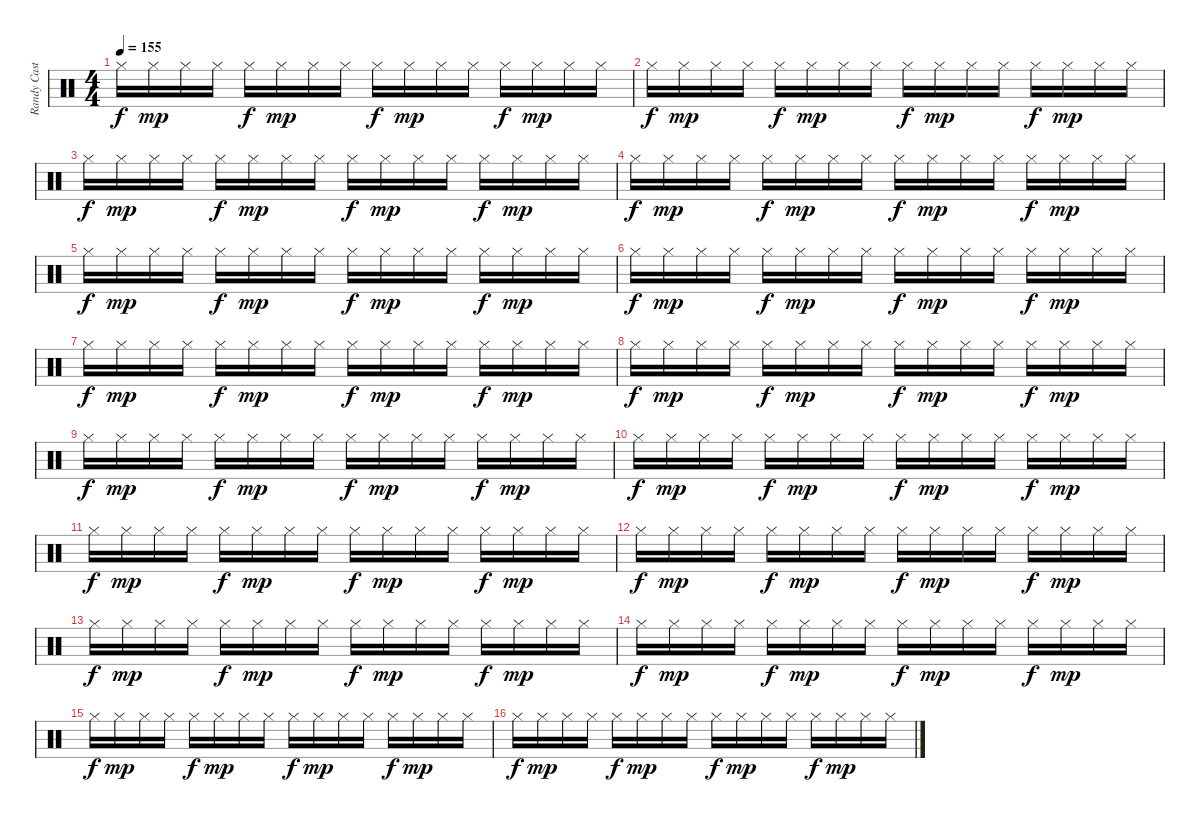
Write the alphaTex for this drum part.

\track ("Randy Castillo - Drums" "Randy Cast") {instrument percussion}
\staff {score}
\articulation defaults
\ts (4 4)
\tempo 155
\clef neutral
\ks c "Hi-Hat (closed)".16{dy f} "Hi-Hat (closed)".16{dy mp} "Hi-Hat (closed)".16 "Hi-Hat (closed)".16 "Hi-Hat (closed)".16{dy f} "Hi-Hat (closed)".16{dy mp} "Hi-Hat (closed)".16 "Hi-Hat (closed)".16 "Hi-Hat (closed)".16{dy f} "Hi-Hat (closed)".16{dy mp} "Hi-Hat (closed)".16 "Hi-Hat (closed)".16 "Hi-Hat (closed)".16{dy f} "Hi-Hat (closed)".16{dy mp} "Hi-Hat (closed)".16 "Hi-Hat (closed)".16
|
"Hi-Hat (closed)".16{dy f} "Hi-Hat (closed)".16{dy mp} "Hi-Hat (closed)".16 "Hi-Hat (closed)".16 "Hi-Hat (closed)".16{dy f} "Hi-Hat (closed)".16{dy mp} "Hi-Hat (closed)".16 "Hi-Hat (closed)".16 "Hi-Hat (closed)".16{dy f} "Hi-Hat (closed)".16{dy mp} "Hi-Hat (closed)".16 "Hi-Hat (closed)".16 "Hi-Hat (closed)".16{dy f} "Hi-Hat (closed)".16{dy mp} "Hi-Hat (closed)".16 "Hi-Hat (closed)".16 |
"Hi-Hat (closed)".16{dy f} "Hi-Hat (closed)".16{dy mp} "Hi-Hat (closed)".16 "Hi-Hat (closed)".16 "Hi-Hat (closed)".16{dy f} "Hi-Hat (closed)".16{dy mp} "Hi-Hat (closed)".16 "Hi-Hat (closed)".16 "Hi-Hat (closed)".16{dy f} "Hi-Hat (closed)".16{dy mp} "Hi-Hat (closed)".16 "Hi-Hat (closed)".16 "Hi-Hat (closed)".16{dy f} "Hi-Hat (closed)".16{dy mp} "Hi-Hat (closed)".16 "Hi-Hat (closed)".16 |
"Hi-Hat (closed)".16{dy f} "Hi-Hat (closed)".16{dy mp} "Hi-Hat (closed)".16 "Hi-Hat (closed)".16 "Hi-Hat (closed)".16{dy f} "Hi-Hat (closed)".16{dy mp} "Hi-Hat (closed)".16 "Hi-Hat (closed)".16 "Hi-Hat (closed)".16{dy f} "Hi-Hat (closed)".16{dy mp} "Hi-Hat (closed)".16 "Hi-Hat (closed)".16 "Hi-Hat (closed)".16{dy f} "Hi-Hat (closed)".16{dy mp} "Hi-Hat (closed)".16 "Hi-Hat (closed)".16 |
"Hi-Hat (closed)".16{dy f} "Hi-Hat (closed)".16{dy mp} "Hi-Hat (closed)".16 "Hi-Hat (closed)".16 "Hi-Hat (closed)".16{dy f} "Hi-Hat (closed)".16{dy mp} "Hi-Hat (closed)".16 "Hi-Hat (closed)".16 "Hi-Hat (closed)".16{dy f} "Hi-Hat (closed)".16{dy mp} "Hi-Hat (closed)".16 "Hi-Hat (closed)".16 "Hi-Hat (closed)".16{dy f} "Hi-Hat (closed)".16{dy mp} "Hi-Hat (closed)".16 "Hi-Hat (closed)".16 |
"Hi-Hat (closed)".16{dy f} "Hi-Hat (closed)".16{dy mp} "Hi-Hat (closed)".16 "Hi-Hat (closed)".16 "Hi-Hat (closed)".16{dy f} "Hi-Hat (closed)".16{dy mp} "Hi-Hat (closed)".16 "Hi-Hat (closed)".16 "Hi-Hat (closed)".16{dy f} "Hi-Hat (closed)".16{dy mp} "Hi-Hat (closed)".16 "Hi-Hat (closed)".16 "Hi-Hat (closed)".16{dy f} "Hi-Hat (closed)".16{dy mp} "Hi-Hat (closed)".16 "Hi-Hat (closed)".16 |
"Hi-Hat (closed)".16{dy f} "Hi-Hat (closed)".16{dy mp} "Hi-Hat (closed)".16 "Hi-Hat (closed)".16 "Hi-Hat (closed)".16{dy f} "Hi-Hat (closed)".16{dy mp} "Hi-Hat (closed)".16 "Hi-Hat (closed)".16 "Hi-Hat (closed)".16{dy f} "Hi-Hat (closed)".16{dy mp} "Hi-Hat (closed)".16 "Hi-Hat (closed)".16 "Hi-Hat (closed)".16{dy f} "Hi-Hat (closed)".16{dy mp} "Hi-Hat (closed)".16 "Hi-Hat (closed)".16 |
"Hi-Hat (closed)".16{dy f} "Hi-Hat (closed)".16{dy mp} "Hi-Hat (closed)".16 "Hi-Hat (closed)".16 "Hi-Hat (closed)".16{dy f} "Hi-Hat (closed)".16{dy mp} "Hi-Hat (closed)".16 "Hi-Hat (closed)".16 "Hi-Hat (closed)".16{dy f} "Hi-Hat (closed)".16{dy mp} "Hi-Hat (closed)".16 "Hi-Hat (closed)".16 "Hi-Hat (closed)".16{dy f} "Hi-Hat (closed)".16{dy mp} "Hi-Hat (closed)".16 "Hi-Hat (closed)".16 |
"Hi-Hat (closed)".16{dy f} "Hi-Hat (closed)".16{dy mp} "Hi-Hat (closed)".16 "Hi-Hat (closed)".16 "Hi-Hat (closed)".16{dy f} "Hi-Hat (closed)".16{dy mp} "Hi-Hat (closed)".16 "Hi-Hat (closed)".16 "Hi-Hat (closed)".16{dy f} "Hi-Hat (closed)".16{dy mp} "Hi-Hat (closed)".16 "Hi-Hat (closed)".16 "Hi-Hat (closed)".16{dy f} "Hi-Hat (closed)".16{dy mp} "Hi-Hat (closed)".16 "Hi-Hat (closed)".16 |
"Hi-Hat (closed)".16{dy f} "Hi-Hat (closed)".16{dy mp} "Hi-Hat (closed)".16 "Hi-Hat (closed)".16 "Hi-Hat (closed)".16{dy f} "Hi-Hat (closed)".16{dy mp} "Hi-Hat (closed)".16 "Hi-Hat (closed)".16 "Hi-Hat (closed)".16{dy f} "Hi-Hat (closed)".16{dy mp} "Hi-Hat (closed)".16 "Hi-Hat (closed)".16 "Hi-Hat (closed)".16{dy f} "Hi-Hat (closed)".16{dy mp} "Hi-Hat (closed)".16 "Hi-Hat (closed)".16 |
"Hi-Hat (closed)".16{dy f} "Hi-Hat (closed)".16{dy mp} "Hi-Hat (closed)".16 "Hi-Hat (closed)".16 "Hi-Hat (closed)".16{dy f} "Hi-Hat (closed)".16{dy mp} "Hi-Hat (closed)".16 "Hi-Hat (closed)".16 "Hi-Hat (closed)".16{dy f} "Hi-Hat (closed)".16{dy mp} "Hi-Hat (closed)".16 "Hi-Hat (closed)".16 "Hi-Hat (closed)".16{dy f} "Hi-Hat (closed)".16{dy mp} "Hi-Hat (closed)".16 "Hi-Hat (closed)".16 |
"Hi-Hat (closed)".16{dy f} "Hi-Hat (closed)".16{dy mp} "Hi-Hat (closed)".16 "Hi-Hat (closed)".16 "Hi-Hat (closed)".16{dy f} "Hi-Hat (closed)".16{dy mp} "Hi-Hat (closed)".16 "Hi-Hat (closed)".16 "Hi-Hat (closed)".16{dy f} "Hi-Hat (closed)".16{dy mp} "Hi-Hat (closed)".16 "Hi-Hat (closed)".16 "Hi-Hat (closed)".16{dy f} "Hi-Hat (closed)".16{dy mp} "Hi-Hat (closed)".16 "Hi-Hat (closed)".16 |
"Hi-Hat (closed)".16{dy f} "Hi-Hat (closed)".16{dy mp} "Hi-Hat (closed)".16 "Hi-Hat (closed)".16 "Hi-Hat (closed)".16{dy f} "Hi-Hat (closed)".16{dy mp} "Hi-Hat (closed)".16 "Hi-Hat (closed)".16 "Hi-Hat (closed)".16{dy f} "Hi-Hat (closed)".16{dy mp} "Hi-Hat (closed)".16 "Hi-Hat (closed)".16 "Hi-Hat (closed)".16{dy f} "Hi-Hat (closed)".16{dy mp} "Hi-Hat (closed)".16 "Hi-Hat (closed)".16 |
"Hi-Hat (closed)".16{dy f} "Hi-Hat (closed)".16{dy mp} "Hi-Hat (closed)".16 "Hi-Hat (closed)".16 "Hi-Hat (closed)".16{dy f} "Hi-Hat (closed)".16{dy mp} "Hi-Hat (closed)".16 "Hi-Hat (closed)".16 "Hi-Hat (closed)".16{dy f} "Hi-Hat (closed)".16{dy mp} "Hi-Hat (closed)".16 "Hi-Hat (closed)".16 "Hi-Hat (closed)".16{dy f} "Hi-Hat (closed)".16{dy mp} "Hi-Hat (closed)".16 "Hi-Hat (closed)".16 |
"Hi-Hat (closed)".16{dy f} "Hi-Hat (closed)".16{dy mp} "Hi-Hat (closed)".16 "Hi-Hat (closed)".16 "Hi-Hat (closed)".16{dy f} "Hi-Hat (closed)".16{dy mp} "Hi-Hat (closed)".16 "Hi-Hat (closed)".16 "Hi-Hat (closed)".16{dy f} "Hi-Hat (closed)".16{dy mp} "Hi-Hat (closed)".16 "Hi-Hat (closed)".16 "Hi-Hat (closed)".16{dy f} "Hi-Hat (closed)".16{dy mp} "Hi-Hat (closed)".16 "Hi-Hat (closed)".16 |
"Hi-Hat (closed)".16{dy f} "Hi-Hat (closed)".16{dy mp} "Hi-Hat (closed)".16 "Hi-Hat (closed)".16 "Hi-Hat (closed)".16{dy f} "Hi-Hat (closed)".16{dy mp} "Hi-Hat (closed)".16 "Hi-Hat (closed)".16 "Hi-Hat (closed)".16{dy f} "Hi-Hat (closed)".16{dy mp} "Hi-Hat (closed)".16 "Hi-Hat (closed)".16 "Hi-Hat (closed)".16{dy f} "Hi-Hat (closed)".16{dy mp} "Hi-Hat (closed)".16 "Hi-Hat (closed)".16
